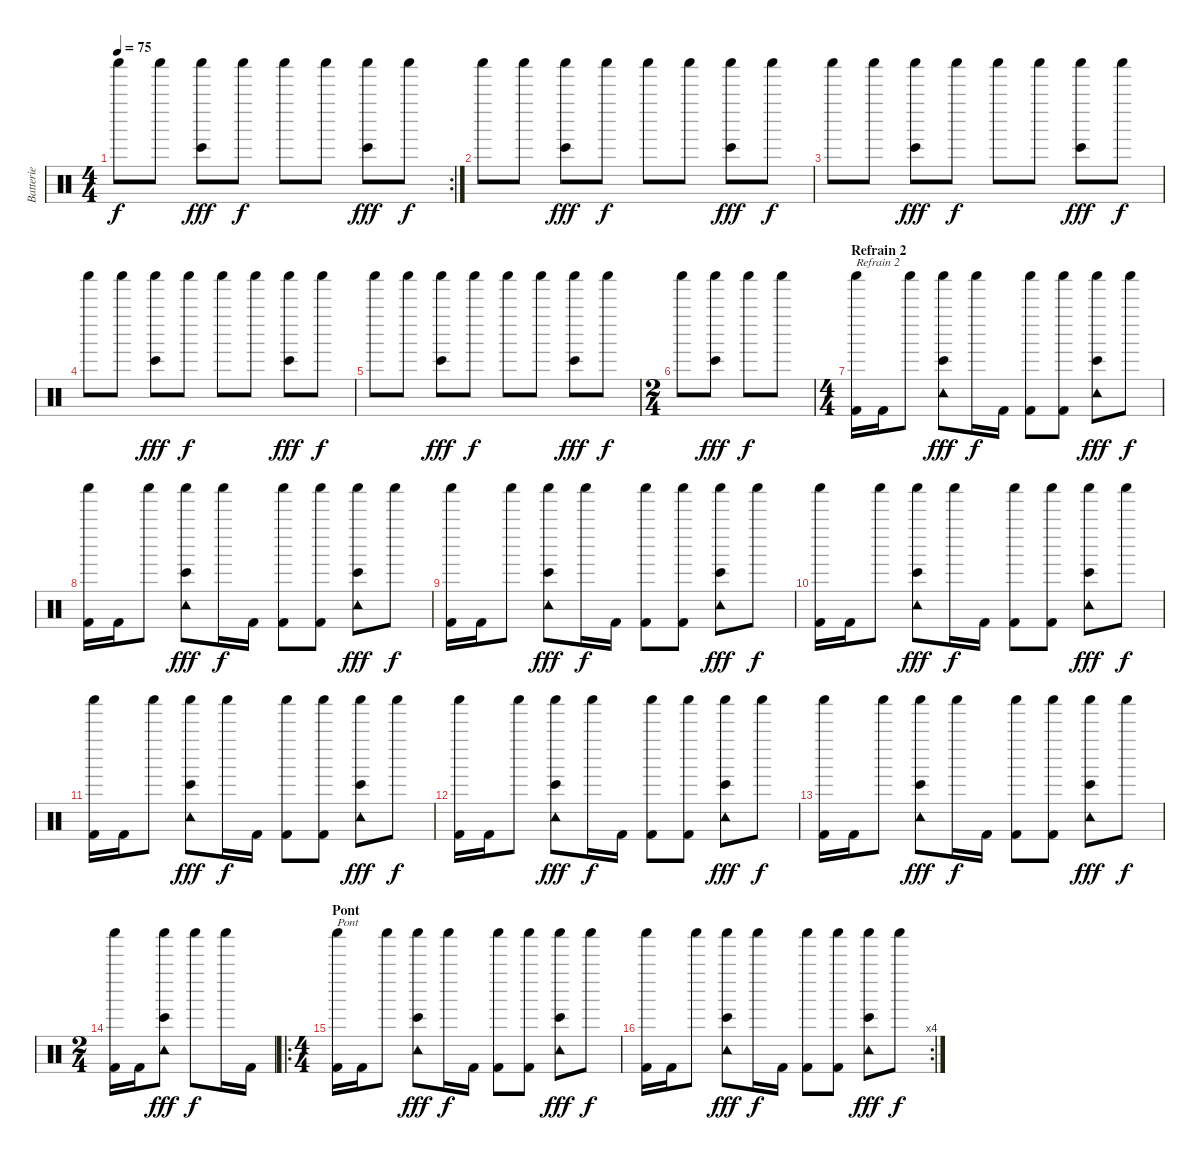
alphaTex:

\track ("Batterie" "Batterie") {instrument percussion}
\staff {score}
\articulation defaults
\rc 2
\ts (4 4)
\tempo 75
\clef neutral
\ks c "Shaker (hit)".8{dy f} "Shaker (hit)".8
("Shaker (hit)" "Bongo High (hit)").8{dy fff} "Shaker (hit)".8{dy f} "Shaker (hit)".8 "Shaker (hit)".8 ("Shaker (hit)" "Bongo High (hit)").8{dy fff} "Shaker (hit)".8{dy f} |
"Shaker (hit)".8 "Shaker (hit)".8 ("Shaker (hit)" "Bongo High (hit)").8{dy fff} "Shaker (hit)".8{dy f} "Shaker (hit)".8 "Shaker (hit)".8 ("Shaker (hit)" "Bongo High (hit)").8{dy fff} "Shaker (hit)".8{dy f} |
"Shaker (hit)".8 "Shaker (hit)".8 ("Shaker (hit)" "Bongo High (hit)").8{dy fff} "Shaker (hit)".8{dy f} "Shaker (hit)".8 "Shaker (hit)".8 ("Shaker (hit)" "Bongo High (hit)").8{dy fff} "Shaker (hit)".8{dy f} |
"Shaker (hit)".8 "Shaker (hit)".8 ("Shaker (hit)" "Bongo High (hit)").8{dy fff} "Shaker (hit)".8{dy f} "Shaker (hit)".8 "Shaker (hit)".8 ("Shaker (hit)" "Bongo High (hit)").8{dy fff} "Shaker (hit)".8{dy f} |
"Shaker (hit)".8 "Shaker (hit)".8 ("Shaker (hit)" "Bongo High (hit)").8{dy fff} "Shaker (hit)".8{dy f} "Shaker (hit)".8 "Shaker (hit)".8 ("Shaker (hit)" "Bongo High (hit)").8{dy fff} "Shaker (hit)".8{dy f} |
\ts (2 4)
"Shaker (hit)".8 ("Shaker (hit)" "Bongo High (hit)").8{dy fff} "Shaker (hit)".8{dy f} "Shaker (hit)".8 |
\ts (4 4)
\section ("" "Refrain 2")
("Shaker (hit)" "Kick (hit) 2").16{txt "Refrain 2"} "Kick (hit) 2".16 "Shaker (hit)".8 ("Shaker (hit)" "Tambourine (hit)" "Bongo High (hit)").8{dy fff} "Shaker (hit)".16{dy f} "Kick (hit) 2".16 ("Shaker (hit)" "Kick (hit) 2").8 ("Shaker (hit)" "Kick (hit) 2").8 ("Shaker (hit)" "Tambourine (hit)" "Bongo High (hit)").8{dy fff} "Shaker (hit)".8{dy f} |
("Shaker (hit)" "Kick (hit) 2").16 "Kick (hit) 2".16 "Shaker (hit)".8 ("Shaker (hit)" "Tambourine (hit)" "Bongo High (hit)").8{dy fff} "Shaker (hit)".16{dy f} "Kick (hit) 2".16 ("Shaker (hit)" "Kick (hit) 2").8 ("Shaker (hit)" "Kick (hit) 2").8 ("Shaker (hit)" "Tambourine (hit)" "Bongo High (hit)").8{dy fff} "Shaker (hit)".8{dy f} |
("Shaker (hit)" "Kick (hit) 2").16 "Kick (hit) 2".16 "Shaker (hit)".8 ("Shaker (hit)" "Tambourine (hit)" "Bongo High (hit)").8{dy fff} "Shaker (hit)".16{dy f} "Kick (hit) 2".16 ("Shaker (hit)" "Kick (hit) 2").8 ("Shaker (hit)" "Kick (hit) 2").8 ("Shaker (hit)" "Tambourine (hit)" "Bongo High (hit)").8{dy fff} "Shaker (hit)".8{dy f} |
("Shaker (hit)" "Kick (hit) 2").16 "Kick (hit) 2".16 "Shaker (hit)".8 ("Shaker (hit)" "Tambourine (hit)" "Bongo High (hit)").8{dy fff} "Shaker (hit)".16{dy f} "Kick (hit) 2".16 ("Shaker (hit)" "Kick (hit) 2").8 ("Shaker (hit)" "Kick (hit) 2").8 ("Shaker (hit)" "Tambourine (hit)" "Bongo High (hit)").8{dy fff} "Shaker (hit)".8{dy f} |
("Shaker (hit)" "Kick (hit) 2").16 "Kick (hit) 2".16 "Shaker (hit)".8 ("Shaker (hit)" "Tambourine (hit)" "Bongo High (hit)").8{dy fff} "Shaker (hit)".16{dy f} "Kick (hit) 2".16 ("Shaker (hit)" "Kick (hit) 2").8 ("Shaker (hit)" "Kick (hit) 2").8 ("Shaker (hit)" "Tambourine (hit)" "Bongo High (hit)").8{dy fff} "Shaker (hit)".8{dy f} |
("Shaker (hit)" "Kick (hit) 2").16 "Kick (hit) 2".16 "Shaker (hit)".8 ("Shaker (hit)" "Tambourine (hit)" "Bongo High (hit)").8{dy fff} "Shaker (hit)".16{dy f} "Kick (hit) 2".16 ("Shaker (hit)" "Kick (hit) 2").8 ("Shaker (hit)" "Kick (hit) 2").8 ("Shaker (hit)" "Tambourine (hit)" "Bongo High (hit)").8{dy fff} "Shaker (hit)".8{dy f} |
("Shaker (hit)" "Kick (hit) 2").16 "Kick (hit) 2".16 "Shaker (hit)".8 ("Shaker (hit)" "Tambourine (hit)" "Bongo High (hit)").8{dy fff} "Shaker (hit)".16{dy f} "Kick (hit) 2".16 ("Shaker (hit)" "Kick (hit) 2").8 ("Shaker (hit)" "Kick (hit) 2").8 ("Shaker (hit)" "Tambourine (hit)" "Bongo High (hit)").8{dy fff} "Shaker (hit)".8{dy f} |
\ts (2 4)
("Shaker (hit)" "Kick (hit) 2").16 "Kick (hit) 2".16 ("Shaker (hit)" "Tambourine (hit)" "Bongo High (hit)").8{dy fff} "Shaker (hit)".8{dy f} "Shaker (hit)".16 "Kick (hit) 2".16 |
\ro
\ts (4 4)
\section ("" "Pont")
("Shaker (hit)" "Kick (hit) 2").16{txt "Pont"} "Kick (hit) 2".16 "Shaker (hit)".8 ("Shaker (hit)" "Tambourine (hit)" "Bongo High (hit)").8{dy fff} "Shaker (hit)".16{dy f} "Kick (hit) 2".16 ("Shaker (hit)" "Kick (hit) 2").8 ("Shaker (hit)" "Kick (hit) 2").8 ("Shaker (hit)" "Tambourine (hit)" "Bongo High (hit)").8{dy fff} "Shaker (hit)".8{dy f} |
\rc 4
("Shaker (hit)" "Kick (hit) 2").16 "Kick (hit) 2".16 "Shaker (hit)".8 ("Shaker (hit)" "Tambourine (hit)" "Bongo High (hit)").8{dy fff} "Shaker (hit)".16{dy f} "Kick (hit) 2".16 ("Shaker (hit)" "Kick (hit) 2").8 ("Shaker (hit)" "Kick (hit) 2").8 ("Shaker (hit)" "Tambourine (hit)" "Bongo High (hit)").8{dy fff} "Shaker (hit)".8{dy f}
